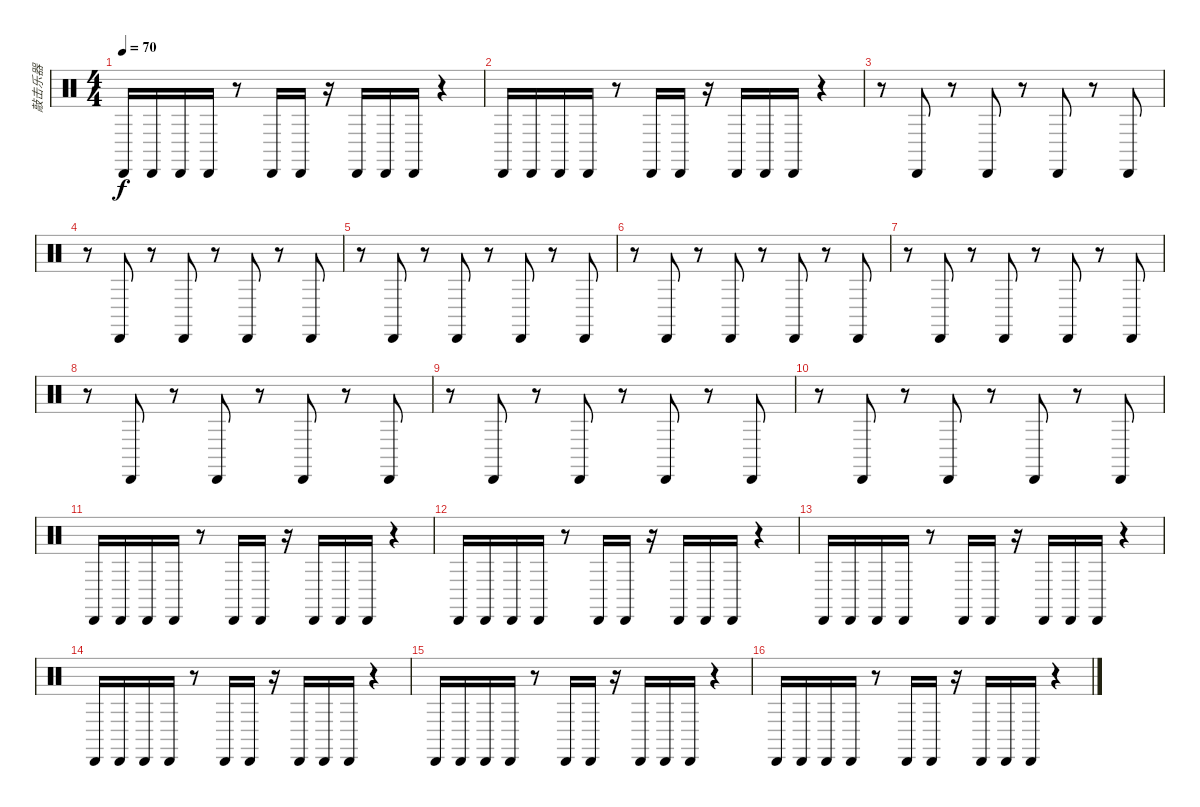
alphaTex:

\track ("敲击乐器" "敲击乐器") {instrument percussion}
\staff {score}
\articulation defaults
\ts (4 4)
\tempo 70
\clef neutral
\ks c "Cabasa (hit)".16{dy f} "Cabasa (hit)".16 "Cabasa (hit)".16 "Cabasa (hit)".16
r.8 "Cabasa (hit)".16 "Cabasa (hit)".16 r.16 "Cabasa (hit)".16 "Cabasa (hit)".16 "Cabasa (hit)".16 r.4 |
"Cabasa (hit)".16 "Cabasa (hit)".16 "Cabasa (hit)".16 "Cabasa (hit)".16 r.8 "Cabasa (hit)".16 "Cabasa (hit)".16 r.16 "Cabasa (hit)".16 "Cabasa (hit)".16 "Cabasa (hit)".16 r.4 |
r.8 "Cabasa (hit)".8 r.8 "Cabasa (hit)".8 r.8 "Cabasa (hit)".8 r.8 "Cabasa (hit)".8 |
r.8 "Cabasa (hit)".8 r.8 "Cabasa (hit)".8 r.8 "Cabasa (hit)".8 r.8 "Cabasa (hit)".8 |
r.8 "Cabasa (hit)".8 r.8 "Cabasa (hit)".8 r.8 "Cabasa (hit)".8 r.8 "Cabasa (hit)".8 |
r.8 "Cabasa (hit)".8 r.8 "Cabasa (hit)".8 r.8 "Cabasa (hit)".8 r.8 "Cabasa (hit)".8 |
r.8 "Cabasa (hit)".8 r.8 "Cabasa (hit)".8 r.8 "Cabasa (hit)".8 r.8 "Cabasa (hit)".8 |
r.8 "Cabasa (hit)".8 r.8 "Cabasa (hit)".8 r.8 "Cabasa (hit)".8 r.8 "Cabasa (hit)".8 |
r.8 "Cabasa (hit)".8 r.8 "Cabasa (hit)".8 r.8 "Cabasa (hit)".8 r.8 "Cabasa (hit)".8 |
r.8 "Cabasa (hit)".8 r.8 "Cabasa (hit)".8 r.8 "Cabasa (hit)".8 r.8 "Cabasa (hit)".8 |
"Cabasa (hit)".16 "Cabasa (hit)".16 "Cabasa (hit)".16 "Cabasa (hit)".16 r.8 "Cabasa (hit)".16 "Cabasa (hit)".16 r.16 "Cabasa (hit)".16 "Cabasa (hit)".16 "Cabasa (hit)".16 r.4 |
"Cabasa (hit)".16 "Cabasa (hit)".16 "Cabasa (hit)".16 "Cabasa (hit)".16 r.8 "Cabasa (hit)".16 "Cabasa (hit)".16 r.16 "Cabasa (hit)".16 "Cabasa (hit)".16 "Cabasa (hit)".16 r.4 |
"Cabasa (hit)".16 "Cabasa (hit)".16 "Cabasa (hit)".16 "Cabasa (hit)".16 r.8 "Cabasa (hit)".16 "Cabasa (hit)".16 r.16 "Cabasa (hit)".16 "Cabasa (hit)".16 "Cabasa (hit)".16 r.4 |
"Cabasa (hit)".16 "Cabasa (hit)".16 "Cabasa (hit)".16 "Cabasa (hit)".16 r.8 "Cabasa (hit)".16 "Cabasa (hit)".16 r.16 "Cabasa (hit)".16 "Cabasa (hit)".16 "Cabasa (hit)".16 r.4 |
"Cabasa (hit)".16 "Cabasa (hit)".16 "Cabasa (hit)".16 "Cabasa (hit)".16 r.8 "Cabasa (hit)".16 "Cabasa (hit)".16 r.16 "Cabasa (hit)".16 "Cabasa (hit)".16 "Cabasa (hit)".16 r.4 |
"Cabasa (hit)".16 "Cabasa (hit)".16 "Cabasa (hit)".16 "Cabasa (hit)".16 r.8 "Cabasa (hit)".16 "Cabasa (hit)".16 r.16 "Cabasa (hit)".16 "Cabasa (hit)".16 "Cabasa (hit)".16 r.4
